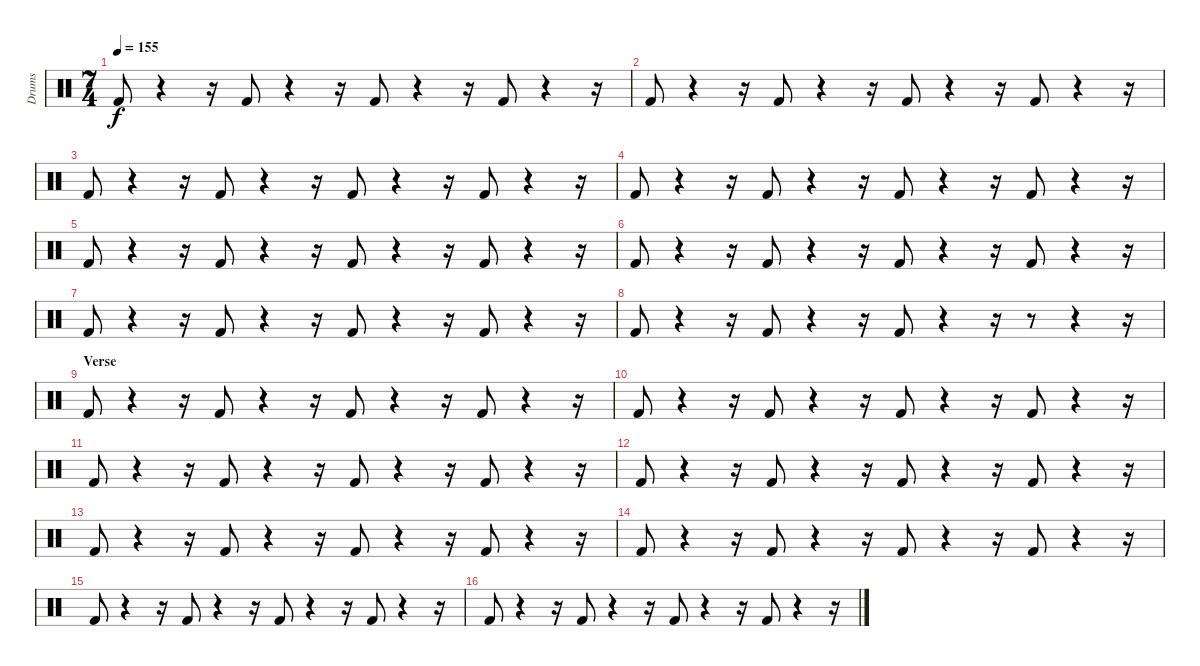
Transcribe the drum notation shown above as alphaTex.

\track ("Drums" "Drums") {instrument percussion}
\staff {score}
\articulation defaults
\ts (7 4)
\tempo 155
\clef neutral
\ks c "Kick (hit) 2".8{dy f}
r.4 r.16 "Kick (hit) 2".8 r.4 r.16 "Kick (hit) 2".8 r.4 r.16 "Kick (hit) 2".8 r.4 r.16 |
"Kick (hit) 2".8 r.4 r.16 "Kick (hit) 2".8 r.4 r.16 "Kick (hit) 2".8 r.4 r.16 "Kick (hit) 2".8 r.4 r.16 |
"Kick (hit) 2".8 r.4 r.16 "Kick (hit) 2".8 r.4 r.16 "Kick (hit) 2".8 r.4 r.16 "Kick (hit) 2".8 r.4 r.16 |
"Kick (hit) 2".8 r.4 r.16 "Kick (hit) 2".8 r.4 r.16 "Kick (hit) 2".8 r.4 r.16 "Kick (hit) 2".8 r.4 r.16 |
"Kick (hit) 2".8 r.4 r.16 "Kick (hit) 2".8 r.4 r.16 "Kick (hit) 2".8 r.4 r.16 "Kick (hit) 2".8 r.4 r.16 |
"Kick (hit) 2".8 r.4 r.16 "Kick (hit) 2".8 r.4 r.16 "Kick (hit) 2".8 r.4 r.16 "Kick (hit) 2".8 r.4 r.16 |
"Kick (hit) 2".8 r.4 r.16 "Kick (hit) 2".8 r.4 r.16 "Kick (hit) 2".8 r.4 r.16 "Kick (hit) 2".8 r.4 r.16 |
"Kick (hit) 2".8 r.4 r.16 "Kick (hit) 2".8 r.4 r.16 "Kick (hit) 2".8 r.4 r.16 r.8 r.4 r.16 |
\section ("" "Verse")
"Kick (hit) 2".8 r.4 r.16 "Kick (hit) 2".8 r.4 r.16 "Kick (hit) 2".8 r.4 r.16 "Kick (hit) 2".8 r.4 r.16 |
"Kick (hit) 2".8 r.4 r.16 "Kick (hit) 2".8 r.4 r.16 "Kick (hit) 2".8 r.4 r.16 "Kick (hit) 2".8 r.4 r.16 |
"Kick (hit) 2".8 r.4 r.16 "Kick (hit) 2".8 r.4 r.16 "Kick (hit) 2".8 r.4 r.16 "Kick (hit) 2".8 r.4 r.16 |
"Kick (hit) 2".8 r.4 r.16 "Kick (hit) 2".8 r.4 r.16 "Kick (hit) 2".8 r.4 r.16 "Kick (hit) 2".8 r.4 r.16 |
"Kick (hit) 2".8 r.4 r.16 "Kick (hit) 2".8 r.4 r.16 "Kick (hit) 2".8 r.4 r.16 "Kick (hit) 2".8 r.4 r.16 |
"Kick (hit) 2".8 r.4 r.16 "Kick (hit) 2".8 r.4 r.16 "Kick (hit) 2".8 r.4 r.16 "Kick (hit) 2".8 r.4 r.16 |
"Kick (hit) 2".8 r.4 r.16 "Kick (hit) 2".8 r.4 r.16 "Kick (hit) 2".8 r.4 r.16 "Kick (hit) 2".8 r.4 r.16 |
"Kick (hit) 2".8 r.4 r.16 "Kick (hit) 2".8 r.4 r.16 "Kick (hit) 2".8 r.4 r.16 "Kick (hit) 2".8 r.4 r.16
